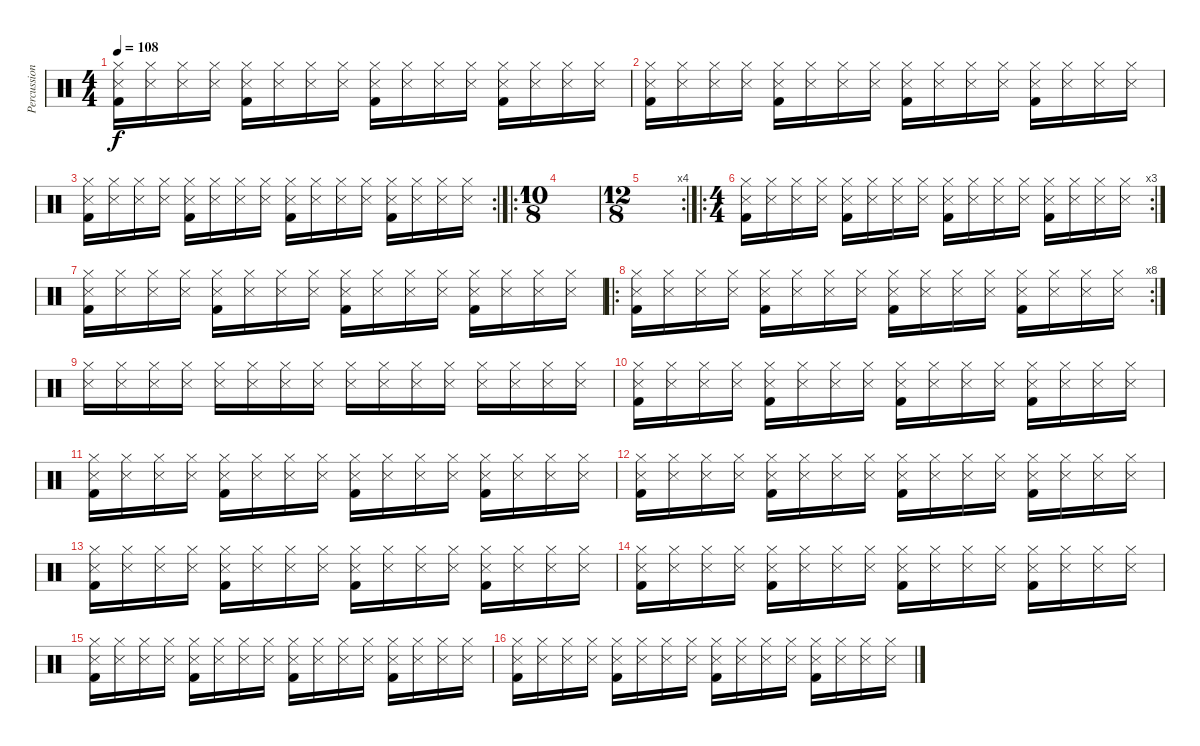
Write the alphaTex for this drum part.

\track ("Percussions" "Percussion") {instrument percussion}
\staff {score}
\articulation defaults
\ts (4 4)
\tempo 108
\clef neutral
\ks c
("Kick (hit) 2" "Hi-Hat (closed)" "Snare (side stick) 3").16{dy f} ("Hi-Hat (closed)" "Snare (side stick) 3").16 ("Hi-Hat (closed)" "Snare (side stick) 3").16 ("Hi-Hat (closed)" "Snare (side stick) 3").16 ("Kick (hit) 2" "Hi-Hat (closed)" "Snare (side stick) 3").16 ("Hi-Hat (closed)" "Snare (side stick) 3").16 ("Hi-Hat (closed)" "Snare (side stick) 3").16 ("Hi-Hat (closed)" "Snare (side stick) 3").16 ("Kick (hit) 2" "Hi-Hat (closed)" "Snare (side stick) 3").16 ("Hi-Hat (closed)" "Snare (side stick) 3").16 ("Hi-Hat (closed)" "Snare (side stick) 3").16 ("Hi-Hat (closed)" "Snare (side stick) 3").16 ("Kick (hit) 2" "Hi-Hat (closed)" "Snare (side stick) 3").16 ("Hi-Hat (closed)" "Snare (side stick) 3").16 ("Hi-Hat (closed)" "Snare (side stick) 3").16 ("Hi-Hat (closed)" "Snare (side stick) 3").16 |
("Kick (hit) 2" "Hi-Hat (closed)" "Snare (side stick) 3").16 ("Hi-Hat (closed)" "Snare (side stick) 3").16 ("Hi-Hat (closed)" "Snare (side stick) 3").16 ("Hi-Hat (closed)" "Snare (side stick) 3").16 ("Kick (hit) 2" "Hi-Hat (closed)" "Snare (side stick) 3").16 ("Hi-Hat (closed)" "Snare (side stick) 3").16 ("Hi-Hat (closed)" "Snare (side stick) 3").16 ("Hi-Hat (closed)" "Snare (side stick) 3").16 ("Kick (hit) 2" "Hi-Hat (closed)" "Snare (side stick) 3").16 ("Hi-Hat (closed)" "Snare (side stick) 3").16 ("Hi-Hat (closed)" "Snare (side stick) 3").16 ("Hi-Hat (closed)" "Snare (side stick) 3").16 ("Kick (hit) 2" "Hi-Hat (closed)" "Snare (side stick) 3").16 ("Hi-Hat (closed)" "Snare (side stick) 3").16 ("Hi-Hat (closed)" "Snare (side stick) 3").16 ("Hi-Hat (closed)" "Snare (side stick) 3").16 |
\rc 2
("Kick (hit) 2" "Hi-Hat (closed)" "Snare (side stick) 3").16 ("Hi-Hat (closed)" "Snare (side stick) 3").16 ("Hi-Hat (closed)" "Snare (side stick) 3").16 ("Hi-Hat (closed)" "Snare (side stick) 3").16 ("Kick (hit) 2" "Hi-Hat (closed)" "Snare (side stick) 3").16 ("Hi-Hat (closed)" "Snare (side stick) 3").16 ("Hi-Hat (closed)" "Snare (side stick) 3").16 ("Hi-Hat (closed)" "Snare (side stick) 3").16 ("Kick (hit) 2" "Hi-Hat (closed)" "Snare (side stick) 3").16 ("Hi-Hat (closed)" "Snare (side stick) 3").16 ("Hi-Hat (closed)" "Snare (side stick) 3").16 ("Hi-Hat (closed)" "Snare (side stick) 3").16 ("Kick (hit) 2" "Hi-Hat (closed)" "Snare (side stick) 3").16 ("Hi-Hat (closed)" "Snare (side stick) 3").16 ("Hi-Hat (closed)" "Snare (side stick) 3").16 ("Hi-Hat (closed)" "Snare (side stick) 3").16 |
\ro
\ts (10 8)
|
\rc 4
\ts (12 8)
|
\ro
\rc 3
\ts (4 4)
("Kick (hit) 2" "Hi-Hat (closed)" "Snare (side stick) 3").16 ("Hi-Hat (closed)" "Snare (side stick) 3").16 ("Hi-Hat (closed)" "Snare (side stick) 3").16 ("Hi-Hat (closed)" "Snare (side stick) 3").16 ("Kick (hit) 2" "Hi-Hat (closed)" "Snare (side stick) 3").16 ("Hi-Hat (closed)" "Snare (side stick) 3").16 ("Hi-Hat (closed)" "Snare (side stick) 3").16 ("Hi-Hat (closed)" "Snare (side stick) 3").16 ("Kick (hit) 2" "Hi-Hat (closed)" "Snare (side stick) 3").16 ("Hi-Hat (closed)" "Snare (side stick) 3").16 ("Hi-Hat (closed)" "Snare (side stick) 3").16 ("Hi-Hat (closed)" "Snare (side stick) 3").16 ("Kick (hit) 2" "Hi-Hat (closed)" "Snare (side stick) 3").16 ("Hi-Hat (closed)" "Snare (side stick) 3").16 ("Hi-Hat (closed)" "Snare (side stick) 3").16 ("Hi-Hat (closed)" "Snare (side stick) 3").16 |
("Kick (hit) 2" "Hi-Hat (closed)" "Snare (side stick) 3").16 ("Hi-Hat (closed)" "Snare (side stick) 3").16 ("Hi-Hat (closed)" "Snare (side stick) 3").16 ("Hi-Hat (closed)" "Snare (side stick) 3").16 ("Kick (hit) 2" "Hi-Hat (closed)" "Snare (side stick) 3").16 ("Hi-Hat (closed)" "Snare (side stick) 3").16 ("Hi-Hat (closed)" "Snare (side stick) 3").16 ("Hi-Hat (closed)" "Snare (side stick) 3").16 ("Kick (hit) 2" "Hi-Hat (closed)" "Snare (side stick) 3").16 ("Hi-Hat (closed)" "Snare (side stick) 3").16 ("Hi-Hat (closed)" "Snare (side stick) 3").16 ("Hi-Hat (closed)" "Snare (side stick) 3").16 ("Kick (hit) 2" "Hi-Hat (closed)" "Snare (side stick) 3").16 ("Hi-Hat (closed)" "Snare (side stick) 3").16 ("Hi-Hat (closed)" "Snare (side stick) 3").16 ("Hi-Hat (closed)" "Snare (side stick) 3").16 |
\ro
\rc 8
("Kick (hit) 2" "Hi-Hat (closed)" "Snare (side stick) 3").16 ("Hi-Hat (closed)" "Snare (side stick) 3").16 ("Hi-Hat (closed)" "Snare (side stick) 3").16 ("Hi-Hat (closed)" "Snare (side stick) 3").16 ("Kick (hit) 2" "Hi-Hat (closed)" "Snare (side stick) 3").16 ("Hi-Hat (closed)" "Snare (side stick) 3").16 ("Hi-Hat (closed)" "Snare (side stick) 3").16 ("Hi-Hat (closed)" "Snare (side stick) 3").16 ("Kick (hit) 2" "Hi-Hat (closed)" "Snare (side stick) 3").16 ("Hi-Hat (closed)" "Snare (side stick) 3").16 ("Hi-Hat (closed)" "Snare (side stick) 3").16 ("Hi-Hat (closed)" "Snare (side stick) 3").16 ("Kick (hit) 2" "Hi-Hat (closed)" "Snare (side stick) 3").16 ("Hi-Hat (closed)" "Snare (side stick) 3").16 ("Hi-Hat (closed)" "Snare (side stick) 3").16 ("Hi-Hat (closed)" "Snare (side stick) 3").16 |
("Hi-Hat (closed)" "Snare (side stick) 3").16 ("Hi-Hat (closed)" "Snare (side stick) 3").16 ("Hi-Hat (closed)" "Snare (side stick) 3").16 ("Hi-Hat (closed)" "Snare (side stick) 3").16 ("Hi-Hat (closed)" "Snare (side stick) 3").16 ("Hi-Hat (closed)" "Snare (side stick) 3").16 ("Hi-Hat (closed)" "Snare (side stick) 3").16 ("Hi-Hat (closed)" "Snare (side stick) 3").16 ("Hi-Hat (closed)" "Snare (side stick) 3").16 ("Hi-Hat (closed)" "Snare (side stick) 3").16 ("Hi-Hat (closed)" "Snare (side stick) 3").16 ("Hi-Hat (closed)" "Snare (side stick) 3").16 ("Hi-Hat (closed)" "Snare (side stick) 3").16 ("Hi-Hat (closed)" "Snare (side stick) 3").16 ("Hi-Hat (closed)" "Snare (side stick) 3").16 ("Hi-Hat (closed)" "Snare (side stick) 3").16 |
("Kick (hit) 2" "Hi-Hat (closed)" "Snare (side stick) 3").16 ("Hi-Hat (closed)" "Snare (side stick) 3").16 ("Hi-Hat (closed)" "Snare (side stick) 3").16 ("Hi-Hat (closed)" "Snare (side stick) 3").16 ("Kick (hit) 2" "Hi-Hat (closed)" "Snare (side stick) 3").16 ("Hi-Hat (closed)" "Snare (side stick) 3").16 ("Hi-Hat (closed)" "Snare (side stick) 3").16 ("Hi-Hat (closed)" "Snare (side stick) 3").16 ("Kick (hit) 2" "Hi-Hat (closed)" "Snare (side stick) 3").16 ("Hi-Hat (closed)" "Snare (side stick) 3").16 ("Hi-Hat (closed)" "Snare (side stick) 3").16 ("Hi-Hat (closed)" "Snare (side stick) 3").16 ("Kick (hit) 2" "Hi-Hat (closed)" "Snare (side stick) 3").16 ("Hi-Hat (closed)" "Snare (side stick) 3").16 ("Hi-Hat (closed)" "Snare (side stick) 3").16 ("Hi-Hat (closed)" "Snare (side stick) 3").16 |
("Kick (hit) 2" "Hi-Hat (closed)" "Snare (side stick) 3").16 ("Hi-Hat (closed)" "Snare (side stick) 3").16 ("Hi-Hat (closed)" "Snare (side stick) 3").16 ("Hi-Hat (closed)" "Snare (side stick) 3").16 ("Kick (hit) 2" "Hi-Hat (closed)" "Snare (side stick) 3").16 ("Hi-Hat (closed)" "Snare (side stick) 3").16 ("Hi-Hat (closed)" "Snare (side stick) 3").16 ("Hi-Hat (closed)" "Snare (side stick) 3").16 ("Kick (hit) 2" "Hi-Hat (closed)" "Snare (side stick) 3").16 ("Hi-Hat (closed)" "Snare (side stick) 3").16 ("Hi-Hat (closed)" "Snare (side stick) 3").16 ("Hi-Hat (closed)" "Snare (side stick) 3").16 ("Kick (hit) 2" "Hi-Hat (closed)" "Snare (side stick) 3").16 ("Hi-Hat (closed)" "Snare (side stick) 3").16 ("Hi-Hat (closed)" "Snare (side stick) 3").16 ("Hi-Hat (closed)" "Snare (side stick) 3").16 |
("Kick (hit) 2" "Hi-Hat (closed)" "Snare (side stick) 3").16 ("Hi-Hat (closed)" "Snare (side stick) 3").16 ("Hi-Hat (closed)" "Snare (side stick) 3").16 ("Hi-Hat (closed)" "Snare (side stick) 3").16 ("Kick (hit) 2" "Hi-Hat (closed)" "Snare (side stick) 3").16 ("Hi-Hat (closed)" "Snare (side stick) 3").16 ("Hi-Hat (closed)" "Snare (side stick) 3").16 ("Hi-Hat (closed)" "Snare (side stick) 3").16 ("Kick (hit) 2" "Hi-Hat (closed)" "Snare (side stick) 3").16 ("Hi-Hat (closed)" "Snare (side stick) 3").16 ("Hi-Hat (closed)" "Snare (side stick) 3").16 ("Hi-Hat (closed)" "Snare (side stick) 3").16 ("Kick (hit) 2" "Hi-Hat (closed)" "Snare (side stick) 3").16 ("Hi-Hat (closed)" "Snare (side stick) 3").16 ("Hi-Hat (closed)" "Snare (side stick) 3").16 ("Hi-Hat (closed)" "Snare (side stick) 3").16 |
("Kick (hit) 2" "Hi-Hat (closed)" "Snare (side stick) 3").16 ("Hi-Hat (closed)" "Snare (side stick) 3").16 ("Hi-Hat (closed)" "Snare (side stick) 3").16 ("Hi-Hat (closed)" "Snare (side stick) 3").16 ("Kick (hit) 2" "Hi-Hat (closed)" "Snare (side stick) 3").16 ("Hi-Hat (closed)" "Snare (side stick) 3").16 ("Hi-Hat (closed)" "Snare (side stick) 3").16 ("Hi-Hat (closed)" "Snare (side stick) 3").16 ("Kick (hit) 2" "Hi-Hat (closed)" "Snare (side stick) 3").16 ("Hi-Hat (closed)" "Snare (side stick) 3").16 ("Hi-Hat (closed)" "Snare (side stick) 3").16 ("Hi-Hat (closed)" "Snare (side stick) 3").16 ("Kick (hit) 2" "Hi-Hat (closed)" "Snare (side stick) 3").16 ("Hi-Hat (closed)" "Snare (side stick) 3").16 ("Hi-Hat (closed)" "Snare (side stick) 3").16 ("Hi-Hat (closed)" "Snare (side stick) 3").16 |
("Kick (hit) 2" "Hi-Hat (closed)" "Snare (side stick) 3").16 ("Hi-Hat (closed)" "Snare (side stick) 3").16 ("Hi-Hat (closed)" "Snare (side stick) 3").16 ("Hi-Hat (closed)" "Snare (side stick) 3").16 ("Kick (hit) 2" "Hi-Hat (closed)" "Snare (side stick) 3").16 ("Hi-Hat (closed)" "Snare (side stick) 3").16 ("Hi-Hat (closed)" "Snare (side stick) 3").16 ("Hi-Hat (closed)" "Snare (side stick) 3").16 ("Kick (hit) 2" "Hi-Hat (closed)" "Snare (side stick) 3").16 ("Hi-Hat (closed)" "Snare (side stick) 3").16 ("Hi-Hat (closed)" "Snare (side stick) 3").16 ("Hi-Hat (closed)" "Snare (side stick) 3").16 ("Kick (hit) 2" "Hi-Hat (closed)" "Snare (side stick) 3").16 ("Hi-Hat (closed)" "Snare (side stick) 3").16 ("Hi-Hat (closed)" "Snare (side stick) 3").16 ("Hi-Hat (closed)" "Snare (side stick) 3").16 |
("Kick (hit) 2" "Hi-Hat (closed)" "Snare (side stick) 3").16 ("Hi-Hat (closed)" "Snare (side stick) 3").16 ("Hi-Hat (closed)" "Snare (side stick) 3").16 ("Hi-Hat (closed)" "Snare (side stick) 3").16 ("Kick (hit) 2" "Hi-Hat (closed)" "Snare (side stick) 3").16 ("Hi-Hat (closed)" "Snare (side stick) 3").16 ("Hi-Hat (closed)" "Snare (side stick) 3").16 ("Hi-Hat (closed)" "Snare (side stick) 3").16 ("Kick (hit) 2" "Hi-Hat (closed)" "Snare (side stick) 3").16 ("Hi-Hat (closed)" "Snare (side stick) 3").16 ("Hi-Hat (closed)" "Snare (side stick) 3").16 ("Hi-Hat (closed)" "Snare (side stick) 3").16 ("Kick (hit) 2" "Hi-Hat (closed)" "Snare (side stick) 3").16 ("Hi-Hat (closed)" "Snare (side stick) 3").16 ("Hi-Hat (closed)" "Snare (side stick) 3").16 ("Hi-Hat (closed)" "Snare (side stick) 3").16 |
("Kick (hit) 2" "Hi-Hat (closed)" "Snare (side stick) 3").16 ("Hi-Hat (closed)" "Snare (side stick) 3").16 ("Hi-Hat (closed)" "Snare (side stick) 3").16 ("Hi-Hat (closed)" "Snare (side stick) 3").16 ("Kick (hit) 2" "Hi-Hat (closed)" "Snare (side stick) 3").16 ("Hi-Hat (closed)" "Snare (side stick) 3").16 ("Hi-Hat (closed)" "Snare (side stick) 3").16 ("Hi-Hat (closed)" "Snare (side stick) 3").16 ("Kick (hit) 2" "Hi-Hat (closed)" "Snare (side stick) 3").16 ("Hi-Hat (closed)" "Snare (side stick) 3").16 ("Hi-Hat (closed)" "Snare (side stick) 3").16 ("Hi-Hat (closed)" "Snare (side stick) 3").16 ("Kick (hit) 2" "Hi-Hat (closed)" "Snare (side stick) 3").16 ("Hi-Hat (closed)" "Snare (side stick) 3").16 ("Hi-Hat (closed)" "Snare (side stick) 3").16 ("Hi-Hat (closed)" "Snare (side stick) 3").16
